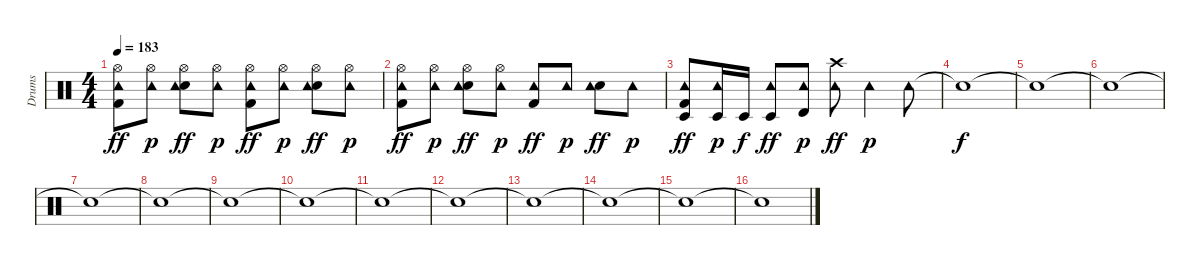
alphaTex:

\track ("Drums" "Drums") {instrument percussion}
\staff {score}
\articulation defaults
\ts (4 4)
\tempo 183
\clef neutral
\ks c
("Kick (hit) 2" "Hi-Hat (open)" "Tambourine (hit)").8{dy ff} ("Hi-Hat (open)" "Tambourine (hit)").8{dy p} ("Snare (hit) 2" "Hi-Hat (open)" "Tambourine (hit)").8{dy ff} ("Hi-Hat (open)" "Tambourine (hit)").8{dy p} ("Kick (hit) 2" "Hi-Hat (open)" "Tambourine (hit)").8{dy ff} ("Hi-Hat (open)" "Tambourine (hit)").8{dy p} ("Snare (hit) 2" "Hi-Hat (open)" "Tambourine (hit)").8{dy ff} ("Hi-Hat (open)" "Tambourine (hit)").8{dy p} |
("Kick (hit) 2" "Hi-Hat (open)" "Tambourine (hit)").8{dy ff} ("Hi-Hat (open)" "Tambourine (hit)").8{dy p} ("Snare (hit) 2" "Hi-Hat (open)" "Tambourine (hit)").8{dy ff} ("Hi-Hat (open)" "Tambourine (hit)").8{dy p} ("Kick (hit) 2" "Tambourine (hit)").8{dy ff} "Tambourine (hit)".8{dy p} ("Snare (hit) 2" "Tambourine (hit)").8{dy ff} "Tambourine (hit)".8{dy p} |
("Kick (hit) 2" "Timbale low (hit)" "Tambourine (hit)").8{dy ff} ("Timbale low (hit)" "Tambourine (hit)").16{dy p} "Timbale low (hit)".16{dy f} ("Timbale low (hit)" "Tambourine (hit)").8{dy ff} ("Timbale high (hit)" "Tambourine (hit)").8{dy p} ("Crash high (hit)" "Tambourine (hit)").8{dy ff} "Tambourine (hit)".4{dy p} "Tambourine (hit)".8 |
"Snare (hit)"{t}.1{dy f} |
"Snare (hit)"{t}.1 |
"Snare (hit)"{t}.1 |
"Snare (hit)"{t}.1 |
"Snare (hit)"{t}.1 |
"Snare (hit)"{t}.1 |
"Snare (hit)"{t}.1 |
"Snare (hit)"{t}.1 |
"Snare (hit)"{t}.1 |
"Snare (hit)"{t}.1 |
"Snare (hit)"{t}.1 |
"Snare (hit)"{t}.1 |
"Snare (hit)"{t}.1
